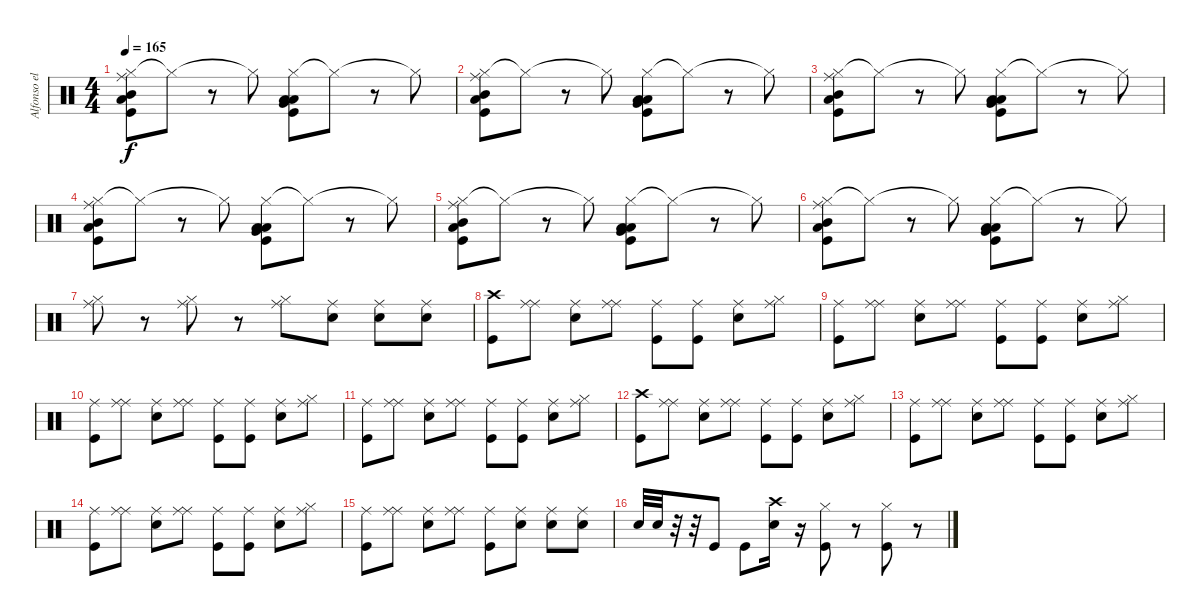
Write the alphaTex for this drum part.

\track ("Alfonso el flaco Andre" "Alfonso el") {instrument percussion}
\staff {score}
\articulation defaults
\ts (4 4)
\tempo 165
\clef neutral
\ks c
("Hi-Hat (closed)" "Ride (middle)" "Low Floor Tom (hit)" "Mid Tom (hit)" "Kick (hit)").8{dy f} "Hi-Hat (closed)"{t}.8 r.8 "Hi-Hat (closed)"{t}.8 ("Hi-Hat (closed)" "Low Floor Tom (hit)" "Very Low Tom (hit)" "Low Tom (hit)" "Kick (hit)").8 "Hi-Hat (closed)"{t}.8 r.8 "Hi-Hat (closed)"{t}.8 |
("Hi-Hat (closed)" "Ride (middle)" "Low Floor Tom (hit)" "Mid Tom (hit)" "Kick (hit)").8 "Hi-Hat (closed)"{t}.8 r.8 "Hi-Hat (closed)"{t}.8 ("Hi-Hat (closed)" "Low Floor Tom (hit)" "Very Low Tom (hit)" "Low Tom (hit)" "Kick (hit)").8 "Hi-Hat (closed)"{t}.8 r.8 "Hi-Hat (closed)"{t}.8 |
("Hi-Hat (closed)" "Ride (middle)" "Low Floor Tom (hit)" "Mid Tom (hit)" "Kick (hit)").8 "Hi-Hat (closed)"{t}.8 r.8 "Hi-Hat (closed)"{t}.8 ("Hi-Hat (closed)" "Low Floor Tom (hit)" "Very Low Tom (hit)" "Low Tom (hit)" "Kick (hit)").8 "Hi-Hat (closed)"{t}.8 r.8 "Hi-Hat (closed)"{t}.8 |
("Hi-Hat (closed)" "Ride (middle)" "Low Floor Tom (hit)" "Mid Tom (hit)" "Kick (hit)").8 "Hi-Hat (closed)"{t}.8 r.8 "Hi-Hat (closed)"{t}.8 ("Hi-Hat (closed)" "Low Floor Tom (hit)" "Very Low Tom (hit)" "Low Tom (hit)" "Kick (hit)").8 "Hi-Hat (closed)"{t}.8 r.8 "Hi-Hat (closed)"{t}.8 |
("Hi-Hat (closed)" "Ride (middle)" "Low Floor Tom (hit)" "Mid Tom (hit)" "Kick (hit)").8 "Hi-Hat (closed)"{t}.8 r.8 "Hi-Hat (closed)"{t}.8 ("Hi-Hat (closed)" "Low Floor Tom (hit)" "Very Low Tom (hit)" "Low Tom (hit)" "Kick (hit)").8 "Hi-Hat (closed)"{t}.8 r.8 "Hi-Hat (closed)"{t}.8 |
("Hi-Hat (closed)" "Ride (middle)" "Low Floor Tom (hit)" "Mid Tom (hit)" "Kick (hit)").8 "Hi-Hat (closed)"{t}.8 r.8 "Hi-Hat (closed)"{t}.8 ("Hi-Hat (closed)" "Low Floor Tom (hit)" "Very Low Tom (hit)" "Low Tom (hit)" "Kick (hit)").8 "Hi-Hat (closed)"{t}.8 r.8 "Hi-Hat (closed)"{t}.8 |
("Ride (middle)" "Hi-Hat (closed)").8 r.8 ("Ride (middle)" "Hi-Hat (closed)").8 r.8 ("Ride (middle)" "Hi-Hat (closed)").8 ("Ride (middle)" "Snare (hit) 2").8 ("Ride (middle)" "Snare (hit) 2").8 ("Ride (middle)" "Snare (hit) 2").8 |
("Crash high (hit)" "Kick (hit)").8 ("Ride (middle)" "Ride (middle)").8 ("Ride (middle)" "Snare (hit) 2").8 ("Ride (middle)" "Ride (middle)").8 ("Ride (middle)" "Kick (hit)").8 ("Ride (middle)" "Kick (hit)").8 ("Ride (middle)" "Snare (hit) 2").8 ("Ride (middle)" "Hi-Hat (closed)").8 |
("Ride (middle)" "Kick (hit)").8 ("Ride (middle)" "Ride (middle)").8 ("Ride (middle)" "Snare (hit) 2").8 ("Ride (middle)" "Ride (middle)").8 ("Ride (middle)" "Kick (hit)").8 ("Ride (middle)" "Kick (hit)").8 ("Ride (middle)" "Snare (hit) 2").8 ("Ride (middle)" "Hi-Hat (closed)").8 |
("Ride (middle)" "Kick (hit)").8 ("Ride (middle)" "Ride (middle)").8 ("Ride (middle)" "Snare (hit) 2").8 ("Ride (middle)" "Ride (middle)").8 ("Ride (middle)" "Kick (hit)").8 ("Ride (middle)" "Kick (hit)").8 ("Ride (middle)" "Snare (hit) 2").8 ("Ride (middle)" "Hi-Hat (closed)").8 |
("Ride (middle)" "Kick (hit)").8 ("Ride (middle)" "Ride (middle)").8 ("Ride (middle)" "Snare (hit) 2").8 ("Ride (middle)" "Ride (middle)").8 ("Ride (middle)" "Kick (hit)").8 ("Ride (middle)" "Kick (hit)").8 ("Ride (middle)" "Snare (hit) 2").8 ("Ride (middle)" "Hi-Hat (closed)").8 |
("Crash high (hit)" "Kick (hit)").8 ("Ride (middle)" "Ride (middle)").8 ("Ride (middle)" "Snare (hit) 2").8 ("Ride (middle)" "Ride (middle)").8 ("Ride (middle)" "Kick (hit)").8 ("Ride (middle)" "Kick (hit)").8 ("Ride (middle)" "Snare (hit) 2").8 ("Ride (middle)" "Hi-Hat (closed)").8 |
("Ride (middle)" "Kick (hit)").8 ("Ride (middle)" "Ride (middle)").8 ("Ride (middle)" "Snare (hit) 2").8 ("Ride (middle)" "Ride (middle)").8 ("Ride (middle)" "Kick (hit)").8 ("Ride (middle)" "Kick (hit)").8 ("Ride (middle)" "Snare (hit) 2").8 ("Ride (middle)" "Hi-Hat (closed)").8 |
("Ride (middle)" "Kick (hit)").8 ("Ride (middle)" "Ride (middle)").8 ("Ride (middle)" "Snare (hit) 2").8 ("Ride (middle)" "Ride (middle)").8 ("Ride (middle)" "Kick (hit)").8 ("Ride (middle)" "Kick (hit)").8 ("Ride (middle)" "Snare (hit) 2").8 ("Ride (middle)" "Hi-Hat (closed)").8 |
("Ride (middle)" "Kick (hit)").8 ("Ride (middle)" "Ride (middle)").8 ("Ride (middle)" "Snare (hit) 2").8 ("Ride (middle)" "Ride (middle)").8 ("Ride (middle)" "Kick (hit)").8 ("Ride (middle)" "Snare (hit) 2").8 ("Ride (middle)" "Snare (hit) 2").8 ("Ride (middle)" "Snare (hit) 2").8 |
"Snare (hit) 2".32 "Snare (hit) 2".32 r.32 r.32 "Kick (hit)".8 "Kick (hit)".8 ("Crash high (hit)" "Snare (hit) 2").16 r.16 ("Hi-Hat (closed)" "Kick (hit)").8 r.8 ("Hi-Hat (closed)" "Kick (hit)").8 r.8
